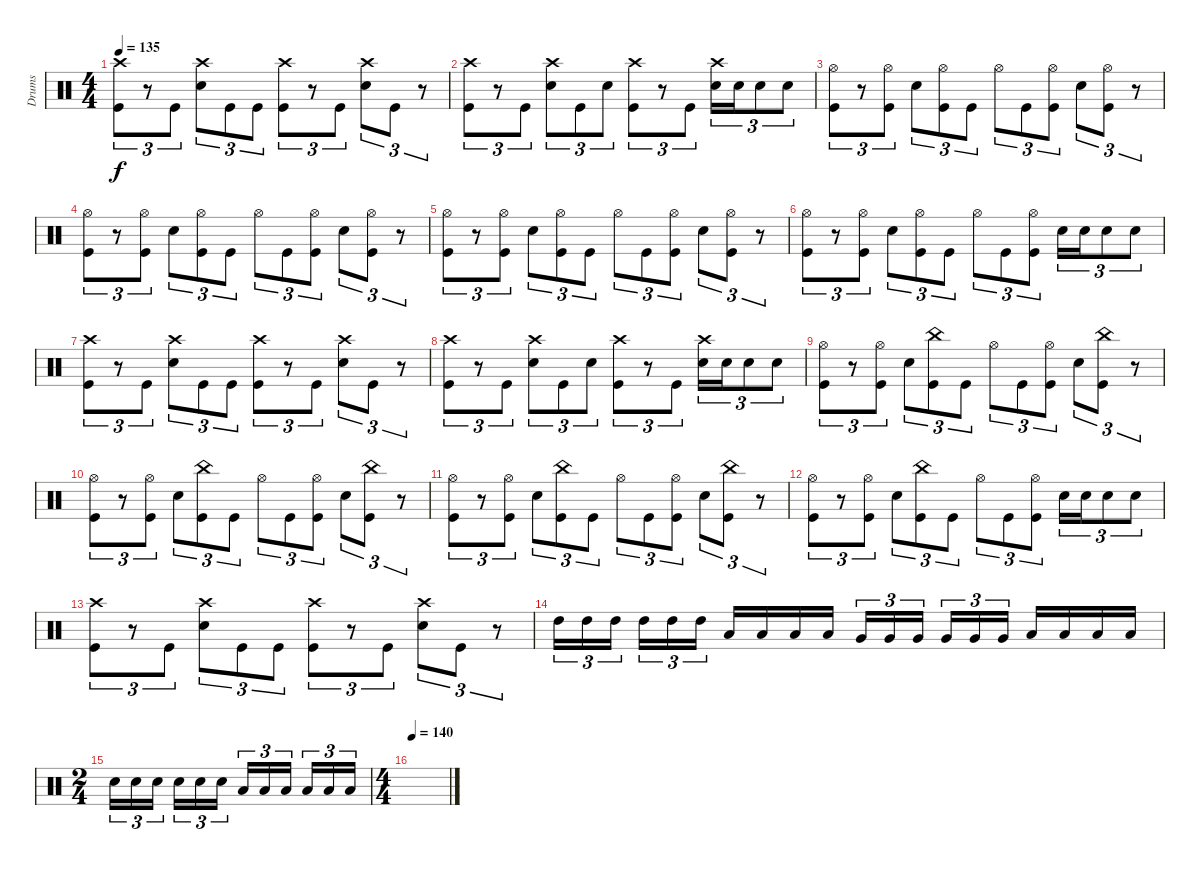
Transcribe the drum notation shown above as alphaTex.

\track ("Drums" "Drums") {instrument percussion}
\staff {score}
\articulation defaults
\ts (4 4)
\tempo 135
\clef neutral
\ks c
("Kick (hit)" "Crash high (hit)").8{tu (3 2) dy f} r.8{tu (3 2)} "Kick (hit)".8{tu (3 2)} ("Snare (hit) 2" "Crash high (hit)").8{tu (3 2)} "Kick (hit)".8{tu (3 2)} "Kick (hit)".8{tu (3 2)} ("Kick (hit)" "Crash high (hit)").8{tu (3 2)} r.8{tu (3 2)} "Kick (hit)".8{tu (3 2)} ("Snare (hit) 2" "Crash high (hit)").8{tu (3 2)} "Kick (hit)".8{tu (3 2)} r.8{tu (3 2)} |
("Kick (hit)" "Crash high (hit)").8{tu (3 2)} r.8{tu (3 2)} "Kick (hit)".8{tu (3 2)} ("Snare (hit) 2" "Crash high (hit)").8{tu (3 2)} "Kick (hit)".8{tu (3 2)} "Snare (hit) 2".8{tu (3 2)} ("Kick (hit)" "Crash high (hit)").8{tu (3 2)} r.8{tu (3 2)} "Kick (hit)".8{tu (3 2)} ("Snare (hit) 2" "Crash high (hit)").16{tu (3 2)} "Snare (hit) 2".16{tu (3 2)} "Snare (hit) 2".8{tu (3 2)} "Snare (hit) 2".8{tu (3 2)} |
("Kick (hit)" "Hi-Hat (open)").8{tu (3 2)} r.8{tu (3 2)} ("Kick (hit)" "Hi-Hat (open)").8{tu (3 2)} "Snare (hit) 2".8{tu (3 2)} ("Kick (hit)" "Hi-Hat (open)").8{tu (3 2)} "Kick (hit)".8{tu (3 2)} "Hi-Hat (open)".8{tu (3 2)} "Kick (hit)".8{tu (3 2)} ("Kick (hit)" "Hi-Hat (open)").8{tu (3 2)} "Snare (hit) 2".8{tu (3 2)} ("Kick (hit)" "Hi-Hat (open)").8{tu (3 2)} r.8{tu (3 2)} |
("Kick (hit)" "Hi-Hat (open)").8{tu (3 2)} r.8{tu (3 2)} ("Kick (hit)" "Hi-Hat (open)").8{tu (3 2)} "Snare (hit) 2".8{tu (3 2)} ("Kick (hit)" "Hi-Hat (open)").8{tu (3 2)} "Kick (hit)".8{tu (3 2)} "Hi-Hat (open)".8{tu (3 2)} "Kick (hit)".8{tu (3 2)} ("Kick (hit)" "Hi-Hat (open)").8{tu (3 2)} "Snare (hit) 2".8{tu (3 2)} ("Kick (hit)" "Hi-Hat (open)").8{tu (3 2)} r.8{tu (3 2)} |
("Kick (hit)" "Hi-Hat (open)").8{tu (3 2)} r.8{tu (3 2)} ("Kick (hit)" "Hi-Hat (open)").8{tu (3 2)} "Snare (hit) 2".8{tu (3 2)} ("Kick (hit)" "Hi-Hat (open)").8{tu (3 2)} "Kick (hit)".8{tu (3 2)} "Hi-Hat (open)".8{tu (3 2)} "Kick (hit)".8{tu (3 2)} ("Kick (hit)" "Hi-Hat (open)").8{tu (3 2)} "Snare (hit) 2".8{tu (3 2)} ("Kick (hit)" "Hi-Hat (open)").8{tu (3 2)} r.8{tu (3 2)} |
("Kick (hit)" "Hi-Hat (open)").8{tu (3 2)} r.8{tu (3 2)} ("Kick (hit)" "Hi-Hat (open)").8{tu (3 2)} "Snare (hit) 2".8{tu (3 2)} ("Kick (hit)" "Hi-Hat (open)").8{tu (3 2)} "Kick (hit)".8{tu (3 2)} "Hi-Hat (open)".8{tu (3 2)} "Kick (hit)".8{tu (3 2)} ("Kick (hit)" "Hi-Hat (open)").8{tu (3 2)} "Snare (hit) 2".16{tu (3 2)} "Snare (hit) 2".16{tu (3 2)} "Snare (hit) 2".8{tu (3 2)} "Snare (hit) 2".8{tu (3 2)} |
("Kick (hit)" "Crash high (hit)").8{tu (3 2)} r.8{tu (3 2)} "Kick (hit)".8{tu (3 2)} ("Snare (hit) 2" "Crash high (hit)").8{tu (3 2)} "Kick (hit)".8{tu (3 2)} "Kick (hit)".8{tu (3 2)} ("Kick (hit)" "Crash high (hit)").8{tu (3 2)} r.8{tu (3 2)} "Kick (hit)".8{tu (3 2)} ("Snare (hit) 2" "Crash high (hit)").8{tu (3 2)} "Kick (hit)".8{tu (3 2)} r.8{tu (3 2)} |
("Kick (hit)" "Crash high (hit)").8{tu (3 2)} r.8{tu (3 2)} "Kick (hit)".8{tu (3 2)} ("Snare (hit) 2" "Crash high (hit)").8{tu (3 2)} "Kick (hit)".8{tu (3 2)} "Snare (hit) 2".8{tu (3 2)} ("Kick (hit)" "Crash high (hit)").8{tu (3 2)} r.8{tu (3 2)} "Kick (hit)".8{tu (3 2)} ("Snare (hit) 2" "Crash high (hit)").16{tu (3 2)} "Snare (hit) 2".16{tu (3 2)} "Snare (hit) 2".8{tu (3 2)} "Snare (hit) 2".8{tu (3 2)} |
("Kick (hit)" "Hi-Hat (open)").8{tu (3 2)} r.8{tu (3 2)} ("Kick (hit)" "Hi-Hat (open)").8{tu (3 2)} "Snare (hit) 2".8{tu (3 2)} ("Kick (hit)" "China (hit)").8{tu (3 2)} "Kick (hit)".8{tu (3 2)} "Hi-Hat (open)".8{tu (3 2)} "Kick (hit)".8{tu (3 2)} ("Kick (hit)" "Hi-Hat (open)").8{tu (3 2)} "Snare (hit) 2".8{tu (3 2)} ("Kick (hit)" "China (hit)").8{tu (3 2)} r.8{tu (3 2)} |
("Kick (hit)" "Hi-Hat (open)").8{tu (3 2)} r.8{tu (3 2)} ("Kick (hit)" "Hi-Hat (open)").8{tu (3 2)} "Snare (hit) 2".8{tu (3 2)} ("Kick (hit)" "China (hit)").8{tu (3 2)} "Kick (hit)".8{tu (3 2)} "Hi-Hat (open)".8{tu (3 2)} "Kick (hit)".8{tu (3 2)} ("Kick (hit)" "Hi-Hat (open)").8{tu (3 2)} "Snare (hit) 2".8{tu (3 2)} ("Kick (hit)" "China (hit)").8{tu (3 2)} r.8{tu (3 2)} |
("Kick (hit)" "Hi-Hat (open)").8{tu (3 2)} r.8{tu (3 2)} ("Kick (hit)" "Hi-Hat (open)").8{tu (3 2)} "Snare (hit) 2".8{tu (3 2)} ("Kick (hit)" "China (hit)").8{tu (3 2)} "Kick (hit)".8{tu (3 2)} "Hi-Hat (open)".8{tu (3 2)} "Kick (hit)".8{tu (3 2)} ("Kick (hit)" "Hi-Hat (open)").8{tu (3 2)} "Snare (hit) 2".8{tu (3 2)} ("Kick (hit)" "China (hit)").8{tu (3 2)} r.8{tu (3 2)} |
("Kick (hit)" "Hi-Hat (open)").8{tu (3 2)} r.8{tu (3 2)} ("Kick (hit)" "Hi-Hat (open)").8{tu (3 2)} "Snare (hit) 2".8{tu (3 2)} ("Kick (hit)" "China (hit)").8{tu (3 2)} "Kick (hit)".8{tu (3 2)} "Hi-Hat (open)".8{tu (3 2)} "Kick (hit)".8{tu (3 2)} ("Kick (hit)" "Hi-Hat (open)").8{tu (3 2)} "Snare (hit) 2".16{tu (3 2)} "Snare (hit) 2".16{tu (3 2)} "Snare (hit) 2".8{tu (3 2)} "Snare (hit) 2".8{tu (3 2)} |
("Kick (hit)" "Crash high (hit)").8{tu (3 2)} r.8{tu (3 2)} "Kick (hit)".8{tu (3 2)} ("Snare (hit) 2" "Crash high (hit)").8{tu (3 2)} "Kick (hit)".8{tu (3 2)} "Kick (hit)".8{tu (3 2)} ("Kick (hit)" "Crash high (hit)").8{tu (3 2)} r.8{tu (3 2)} "Kick (hit)".8{tu (3 2)} ("Snare (hit) 2" "Crash high (hit)").8{tu (3 2)} "Kick (hit)".8{tu (3 2)} r.8{tu (3 2)} |
"High Tom (hit)".16{tu (3 2)} "High Tom (hit)".16{tu (3 2)} "High Tom (hit)".16{tu (3 2)} "High Tom (hit)".16{tu (3 2)} "High Tom (hit)".16{tu (3 2)} "High Tom (hit)".16{tu (3 2)} "Low Tom (hit)".16 "Low Tom (hit)".16 "Low Tom (hit)".16 "Low Tom (hit)".16 "Very Low Tom (hit)".16{tu (3 2)} "Very Low Tom (hit)".16{tu (3 2)} "Very Low Tom (hit)".16{tu (3 2)} "Very Low Tom (hit)".16{tu (3 2)} "Very Low Tom (hit)".16{tu (3 2)} "Very Low Tom (hit)".16{tu (3 2)} "Low Floor Tom (hit)".16 "Low Floor Tom (hit)".16 "Low Floor Tom (hit)".16 "Low Floor Tom (hit)".16 |
\ts (2 4)
"Snare (hit) 2".16{tu (3 2)} "Snare (hit) 2".16{tu (3 2)} "Snare (hit) 2".16{tu (3 2)} "Snare (hit) 2".16{tu (3 2)} "Snare (hit) 2".16{tu (3 2)} "Snare (hit) 2".16{tu (3 2)} "Low Tom (hit)".16{tu (3 2)} "Low Tom (hit)".16{tu (3 2)} "Low Tom (hit)".16{tu (3 2)} "Low Tom (hit)".16{tu (3 2)} "Low Tom (hit)".16{tu (3 2)} "Low Tom (hit)".16{tu (3 2)} |
\ts (4 4)
\tempo 140
